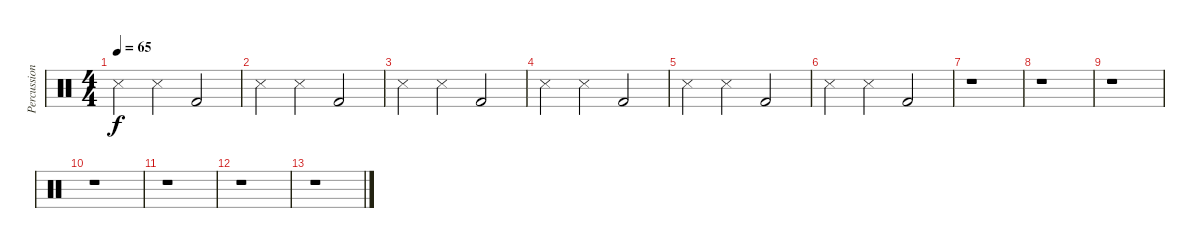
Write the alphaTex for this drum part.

\track ("Percussion" "Percussion") {instrument percussion}
\staff {score}
\articulation defaults
\ts (4 4)
\tempo 65
\clef neutral
\ks c "Snare (side stick) 3".4{dy f} "Snare (side stick) 3".4 "Kick (hit) 2".2
|
"Snare (side stick) 3".4 "Snare (side stick) 3".4 "Kick (hit) 2".2 |
"Snare (side stick) 3".4 "Snare (side stick) 3".4 "Kick (hit) 2".2 |
"Snare (side stick) 3".4 "Snare (side stick) 3".4 "Kick (hit) 2".2 |
"Snare (side stick) 3".4 "Snare (side stick) 3".4 "Kick (hit) 2".2 |
"Snare (side stick) 3".4 "Snare (side stick) 3".4 "Kick (hit) 2".2 |
r.1 |
r.1 |
r.1 |
r.1 |
r.1 |
r.1 |
r.1
